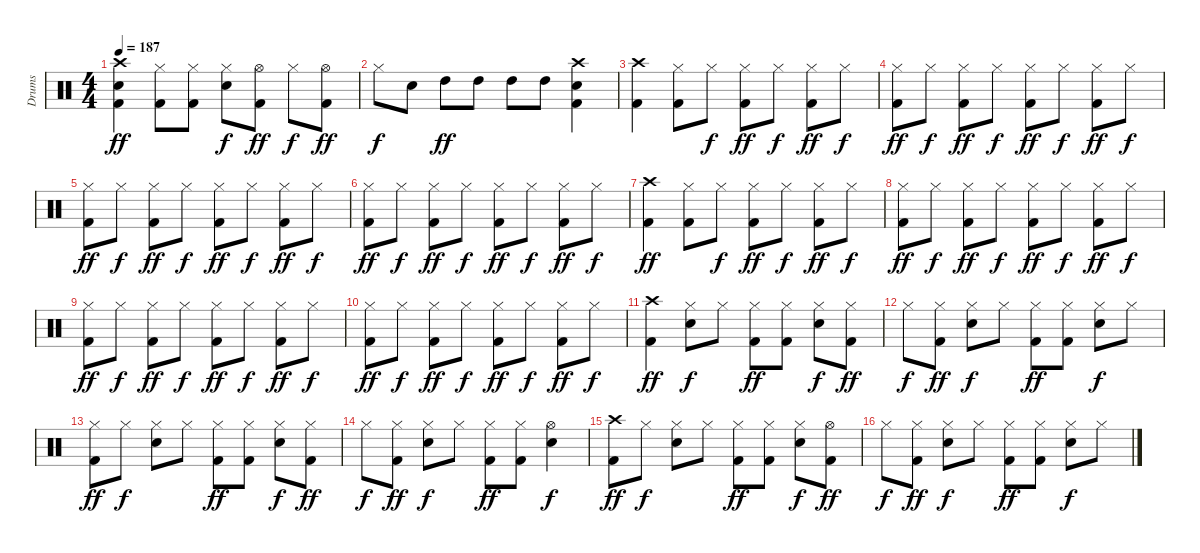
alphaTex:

\track ("Drums" "Drums") {instrument percussion}
\staff {score}
\articulation defaults
\ts (4 4)
\tempo 187
\clef neutral
\ks c
("Crash high (hit)" "Electric Snare (hit)" "Kick (hit) 2").4{dy ff} ("Hi-Hat (closed)" "Kick (hit) 2").8 ("Hi-Hat (closed)" "Kick (hit) 2").8 ("Hi-Hat (closed)" "Electric Snare (hit)").8{dy f} ("Hi-Hat (open)" "Kick (hit) 2").8{dy ff} "Hi-Hat (closed)".8{dy f} ("Hi-Hat (open)" "Kick (hit) 2").8{dy ff} |
"Hi-Hat (closed)".8{dy f} "Electric Snare (hit)".8 "High Tom (hit)".8{dy ff} "High Tom (hit)".8 "High Tom (hit)".8 "High Tom (hit)".8 ("Crash high (hit)" "Electric Snare (hit)" "Kick (hit) 2").4 |
("Crash high (hit)" "Kick (hit) 2").4 ("Hi-Hat (closed)" "Kick (hit) 2").8 "Hi-Hat (closed)".8{dy f} ("Hi-Hat (closed)" "Kick (hit) 2").8{dy ff} "Hi-Hat (closed)".8{dy f} ("Hi-Hat (closed)" "Kick (hit) 2").8{dy ff} "Hi-Hat (closed)".8{dy f} |
("Hi-Hat (closed)" "Kick (hit) 2").8{dy ff} "Hi-Hat (closed)".8{dy f} ("Hi-Hat (closed)" "Kick (hit) 2").8{dy ff} "Hi-Hat (closed)".8{dy f} ("Hi-Hat (closed)" "Kick (hit) 2").8{dy ff} "Hi-Hat (closed)".8{dy f} ("Hi-Hat (closed)" "Kick (hit) 2").8{dy ff} "Hi-Hat (closed)".8{dy f} |
("Hi-Hat (closed)" "Kick (hit) 2").8{dy ff} "Hi-Hat (closed)".8{dy f} ("Hi-Hat (closed)" "Kick (hit) 2").8{dy ff} "Hi-Hat (closed)".8{dy f} ("Hi-Hat (closed)" "Kick (hit) 2").8{dy ff} "Hi-Hat (closed)".8{dy f} ("Hi-Hat (closed)" "Kick (hit) 2").8{dy ff} "Hi-Hat (closed)".8{dy f} |
("Hi-Hat (closed)" "Kick (hit) 2").8{dy ff} "Hi-Hat (closed)".8{dy f} ("Hi-Hat (closed)" "Kick (hit) 2").8{dy ff} "Hi-Hat (closed)".8{dy f} ("Hi-Hat (closed)" "Kick (hit) 2").8{dy ff} "Hi-Hat (closed)".8{dy f} ("Hi-Hat (closed)" "Kick (hit) 2").8{dy ff} "Hi-Hat (closed)".8{dy f} |
("Crash high (hit)" "Kick (hit) 2").4{dy ff} ("Hi-Hat (closed)" "Kick (hit) 2").8 "Hi-Hat (closed)".8{dy f} ("Hi-Hat (closed)" "Kick (hit) 2").8{dy ff} "Hi-Hat (closed)".8{dy f} ("Hi-Hat (closed)" "Kick (hit) 2").8{dy ff} "Hi-Hat (closed)".8{dy f} |
("Hi-Hat (closed)" "Kick (hit) 2").8{dy ff} "Hi-Hat (closed)".8{dy f} ("Hi-Hat (closed)" "Kick (hit) 2").8{dy ff} "Hi-Hat (closed)".8{dy f} ("Hi-Hat (closed)" "Kick (hit) 2").8{dy ff} "Hi-Hat (closed)".8{dy f} ("Hi-Hat (closed)" "Kick (hit) 2").8{dy ff} "Hi-Hat (closed)".8{dy f} |
("Hi-Hat (closed)" "Kick (hit) 2").8{dy ff} "Hi-Hat (closed)".8{dy f} ("Hi-Hat (closed)" "Kick (hit) 2").8{dy ff} "Hi-Hat (closed)".8{dy f} ("Hi-Hat (closed)" "Kick (hit) 2").8{dy ff} "Hi-Hat (closed)".8{dy f} ("Hi-Hat (closed)" "Kick (hit) 2").8{dy ff} "Hi-Hat (closed)".8{dy f} |
("Hi-Hat (closed)" "Kick (hit) 2").8{dy ff} "Hi-Hat (closed)".8{dy f} ("Hi-Hat (closed)" "Kick (hit) 2").8{dy ff} "Hi-Hat (closed)".8{dy f} ("Hi-Hat (closed)" "Kick (hit) 2").8{dy ff} "Hi-Hat (closed)".8{dy f} ("Hi-Hat (closed)" "Kick (hit) 2").8{dy ff} "Hi-Hat (closed)".8{dy f} |
("Crash high (hit)" "Kick (hit) 2").4{dy ff} ("Hi-Hat (closed)" "Electric Snare (hit)").8{dy f} "Hi-Hat (closed)".8 ("Hi-Hat (closed)" "Kick (hit) 2").8{dy ff} ("Hi-Hat (closed)" "Kick (hit) 2").8 ("Hi-Hat (closed)" "Electric Snare (hit)").8{dy f} ("Hi-Hat (closed)" "Kick (hit) 2").8{dy ff} |
"Hi-Hat (closed)".8{dy f} ("Hi-Hat (closed)" "Kick (hit) 2").8{dy ff} ("Hi-Hat (closed)" "Electric Snare (hit)").8{dy f} "Hi-Hat (closed)".8 ("Hi-Hat (closed)" "Kick (hit) 2").8{dy ff} ("Hi-Hat (closed)" "Kick (hit) 2").8 ("Hi-Hat (closed)" "Electric Snare (hit)").8{dy f} "Hi-Hat (closed)".8 |
("Hi-Hat (closed)" "Kick (hit) 2").8{dy ff} "Hi-Hat (closed)".8{dy f} ("Hi-Hat (closed)" "Electric Snare (hit)").8 "Hi-Hat (closed)".8 ("Hi-Hat (closed)" "Kick (hit) 2").8{dy ff} ("Hi-Hat (closed)" "Kick (hit) 2").8 ("Hi-Hat (closed)" "Electric Snare (hit)").8{dy f} ("Hi-Hat (closed)" "Kick (hit) 2").8{dy ff} |
"Hi-Hat (closed)".8{dy f} ("Hi-Hat (closed)" "Kick (hit) 2").8{dy ff} ("Hi-Hat (closed)" "Electric Snare (hit)").8{dy f} "Hi-Hat (closed)".8 ("Hi-Hat (closed)" "Kick (hit) 2").8{dy ff} ("Hi-Hat (closed)" "Kick (hit) 2").8 ("Hi-Hat (open)" "Electric Snare (hit)").4{dy f} |
("Crash high (hit)" "Kick (hit) 2").8{dy ff} "Hi-Hat (closed)".8{dy f} ("Hi-Hat (closed)" "Electric Snare (hit)").8 "Hi-Hat (closed)".8 ("Hi-Hat (closed)" "Kick (hit) 2").8{dy ff} ("Hi-Hat (closed)" "Kick (hit) 2").8 ("Hi-Hat (closed)" "Electric Snare (hit)").8{dy f} ("Hi-Hat (open)" "Kick (hit) 2").8{dy ff} |
"Hi-Hat (closed)".8{dy f} ("Hi-Hat (closed)" "Kick (hit) 2").8{dy ff} ("Hi-Hat (closed)" "Electric Snare (hit)").8{dy f} "Hi-Hat (closed)".8 ("Hi-Hat (closed)" "Kick (hit) 2").8{dy ff} ("Hi-Hat (closed)" "Kick (hit) 2").8 ("Hi-Hat (closed)" "Electric Snare (hit)").8{dy f} "Hi-Hat (closed)".8
